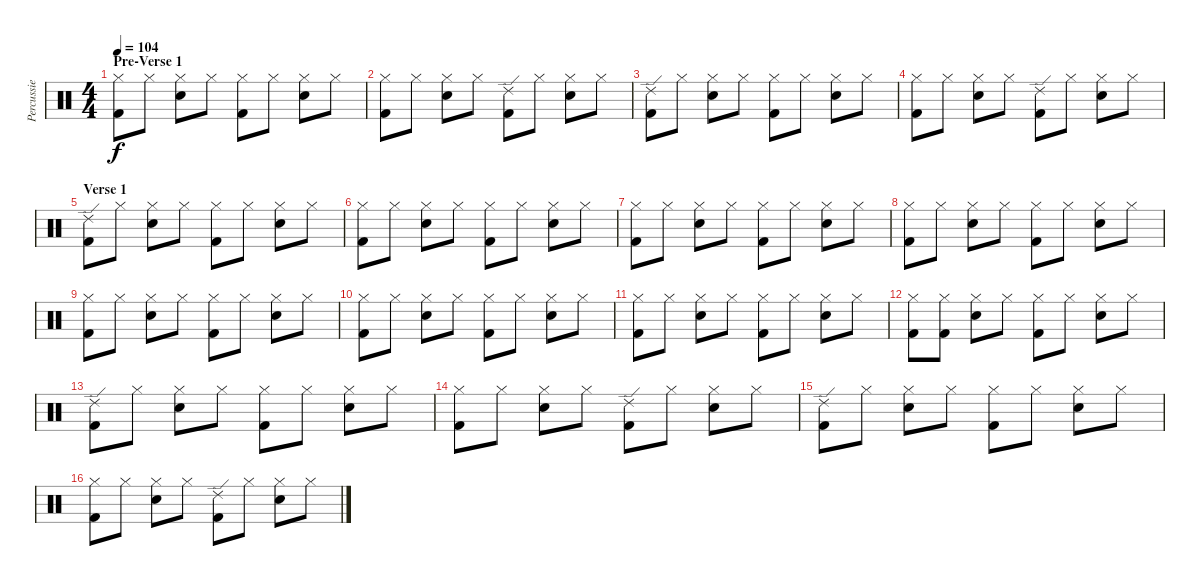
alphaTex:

\track ("Percussie" "Percussie") {instrument percussion}
\staff {score}
\articulation defaults
\ts (4 4)
\section ("" "Pre-Verse 1")
\tempo 104
\clef neutral
\ks c
("Hi-Hat (closed)" "Kick (hit) 2").8{dy f} "Hi-Hat (closed)".8 ("Hi-Hat (closed)" "Snare (hit) 2").8 "Hi-Hat (closed)".8 ("Hi-Hat (closed)" "Kick (hit) 2").8 "Hi-Hat (closed)".8 ("Hi-Hat (closed)" "Snare (hit) 2").8 "Hi-Hat (closed)".8 |
("Hi-Hat (closed)" "Kick (hit) 2").8 "Hi-Hat (closed)".8 ("Hi-Hat (closed)" "Snare (hit) 2").8 "Hi-Hat (closed)".8 ("Kick (hit) 2" "Ride (edge) 2").8 "Hi-Hat (closed)".8 ("Hi-Hat (closed)" "Snare (hit) 2").8 "Hi-Hat (closed)".8 |
("Kick (hit) 2" "Ride (edge) 2").8 "Hi-Hat (closed)".8 ("Hi-Hat (closed)" "Snare (hit) 2").8 "Hi-Hat (closed)".8 ("Hi-Hat (closed)" "Kick (hit) 2").8 "Hi-Hat (closed)".8 ("Hi-Hat (closed)" "Snare (hit) 2").8 "Hi-Hat (closed)".8 |
("Hi-Hat (closed)" "Kick (hit) 2").8 "Hi-Hat (closed)".8 ("Hi-Hat (closed)" "Snare (hit) 2").8 "Hi-Hat (closed)".8 ("Kick (hit) 2" "Ride (edge) 2").8 "Hi-Hat (closed)".8 ("Hi-Hat (closed)" "Snare (hit) 2").8 "Hi-Hat (closed)".8 |
\section ("" "Verse 1")
("Kick (hit) 2" "Ride (edge) 2").8 "Hi-Hat (closed)".8 ("Hi-Hat (closed)" "Snare (hit) 2").8 "Hi-Hat (closed)".8 ("Hi-Hat (closed)" "Kick (hit) 2").8 "Hi-Hat (closed)".8 ("Hi-Hat (closed)" "Snare (hit) 2").8 "Hi-Hat (closed)".8 |
("Hi-Hat (closed)" "Kick (hit) 2").8 "Hi-Hat (closed)".8 ("Hi-Hat (closed)" "Snare (hit) 2").8 "Hi-Hat (closed)".8 ("Hi-Hat (closed)" "Kick (hit) 2").8 "Hi-Hat (closed)".8 ("Hi-Hat (closed)" "Snare (hit) 2").8 "Hi-Hat (closed)".8 |
("Hi-Hat (closed)" "Kick (hit) 2").8 "Hi-Hat (closed)".8 ("Hi-Hat (closed)" "Snare (hit) 2").8 "Hi-Hat (closed)".8 ("Hi-Hat (closed)" "Kick (hit) 2").8 "Hi-Hat (closed)".8 ("Hi-Hat (closed)" "Snare (hit) 2").8 "Hi-Hat (closed)".8 |
("Hi-Hat (closed)" "Kick (hit) 2").8 "Hi-Hat (closed)".8 ("Hi-Hat (closed)" "Snare (hit) 2").8 "Hi-Hat (closed)".8 ("Hi-Hat (closed)" "Kick (hit) 2").8 "Hi-Hat (closed)".8 ("Hi-Hat (closed)" "Snare (hit) 2").8 "Hi-Hat (closed)".8 |
("Hi-Hat (closed)" "Kick (hit) 2").8 "Hi-Hat (closed)".8 ("Hi-Hat (closed)" "Snare (hit) 2").8 "Hi-Hat (closed)".8 ("Hi-Hat (closed)" "Kick (hit) 2").8 "Hi-Hat (closed)".8 ("Hi-Hat (closed)" "Snare (hit) 2").8 "Hi-Hat (closed)".8 |
("Hi-Hat (closed)" "Kick (hit) 2").8 "Hi-Hat (closed)".8 ("Hi-Hat (closed)" "Snare (hit) 2").8 "Hi-Hat (closed)".8 ("Hi-Hat (closed)" "Kick (hit) 2").8 "Hi-Hat (closed)".8 ("Hi-Hat (closed)" "Snare (hit) 2").8 "Hi-Hat (closed)".8 |
("Hi-Hat (closed)" "Kick (hit) 2").8 "Hi-Hat (closed)".8 ("Hi-Hat (closed)" "Snare (hit) 2").8 "Hi-Hat (closed)".8 ("Hi-Hat (closed)" "Kick (hit) 2").8 "Hi-Hat (closed)".8 ("Hi-Hat (closed)" "Snare (hit) 2").8 "Hi-Hat (closed)".8 |
("Hi-Hat (closed)" "Kick (hit) 2").8 ("Hi-Hat (closed)" "Kick (hit) 2").8 ("Hi-Hat (closed)" "Snare (hit) 2").8 "Hi-Hat (closed)".8 ("Hi-Hat (closed)" "Kick (hit) 2").8 "Hi-Hat (closed)".8 ("Hi-Hat (closed)" "Snare (hit) 2").8 "Hi-Hat (closed)".8 |
("Kick (hit) 2" "Ride (edge) 2").8 "Hi-Hat (closed)".8 ("Hi-Hat (closed)" "Snare (hit) 2").8 "Hi-Hat (closed)".8 ("Hi-Hat (closed)" "Kick (hit) 2").8 "Hi-Hat (closed)".8 ("Hi-Hat (closed)" "Snare (hit) 2").8 "Hi-Hat (closed)".8 |
("Hi-Hat (closed)" "Kick (hit) 2").8 "Hi-Hat (closed)".8 ("Hi-Hat (closed)" "Snare (hit) 2").8 "Hi-Hat (closed)".8 ("Kick (hit) 2" "Ride (edge) 2").8 "Hi-Hat (closed)".8 ("Hi-Hat (closed)" "Snare (hit) 2").8 "Hi-Hat (closed)".8 |
("Kick (hit) 2" "Ride (edge) 2").8 "Hi-Hat (closed)".8 ("Hi-Hat (closed)" "Snare (hit) 2").8 "Hi-Hat (closed)".8 ("Hi-Hat (closed)" "Kick (hit) 2").8 "Hi-Hat (closed)".8 ("Hi-Hat (closed)" "Snare (hit) 2").8 "Hi-Hat (closed)".8 |
("Hi-Hat (closed)" "Kick (hit) 2").8 "Hi-Hat (closed)".8 ("Hi-Hat (closed)" "Snare (hit) 2").8 "Hi-Hat (closed)".8 ("Kick (hit) 2" "Ride (edge) 2").8 "Hi-Hat (closed)".8 ("Hi-Hat (closed)" "Snare (hit) 2").8 "Hi-Hat (closed)".8
